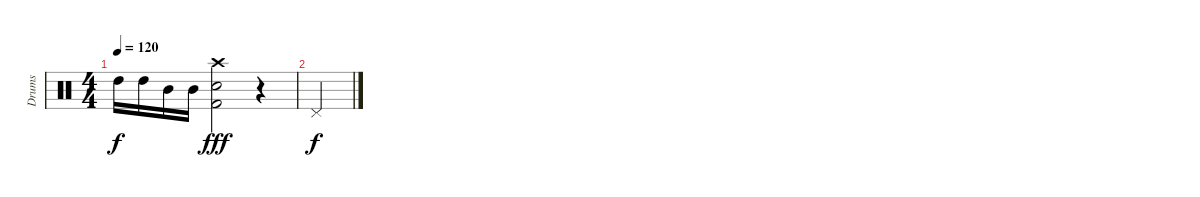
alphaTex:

\track ("Drums" "Drums") {instrument percussion}
\staff {score}
\articulation defaults
\ts (4 4)
\tempo 120
\clef neutral
\ks c "High Tom (hit)".16{dy f} "High Tom (hit)".16 "Mid Tom (hit)".16 "Mid Tom (hit)".16
("Crash high (hit)" "Snare (hit) 2" "Kick (hit) 2").2{dy fff} r.4 |
"Pedal Hi-Hat (hit)".4{dy f}
